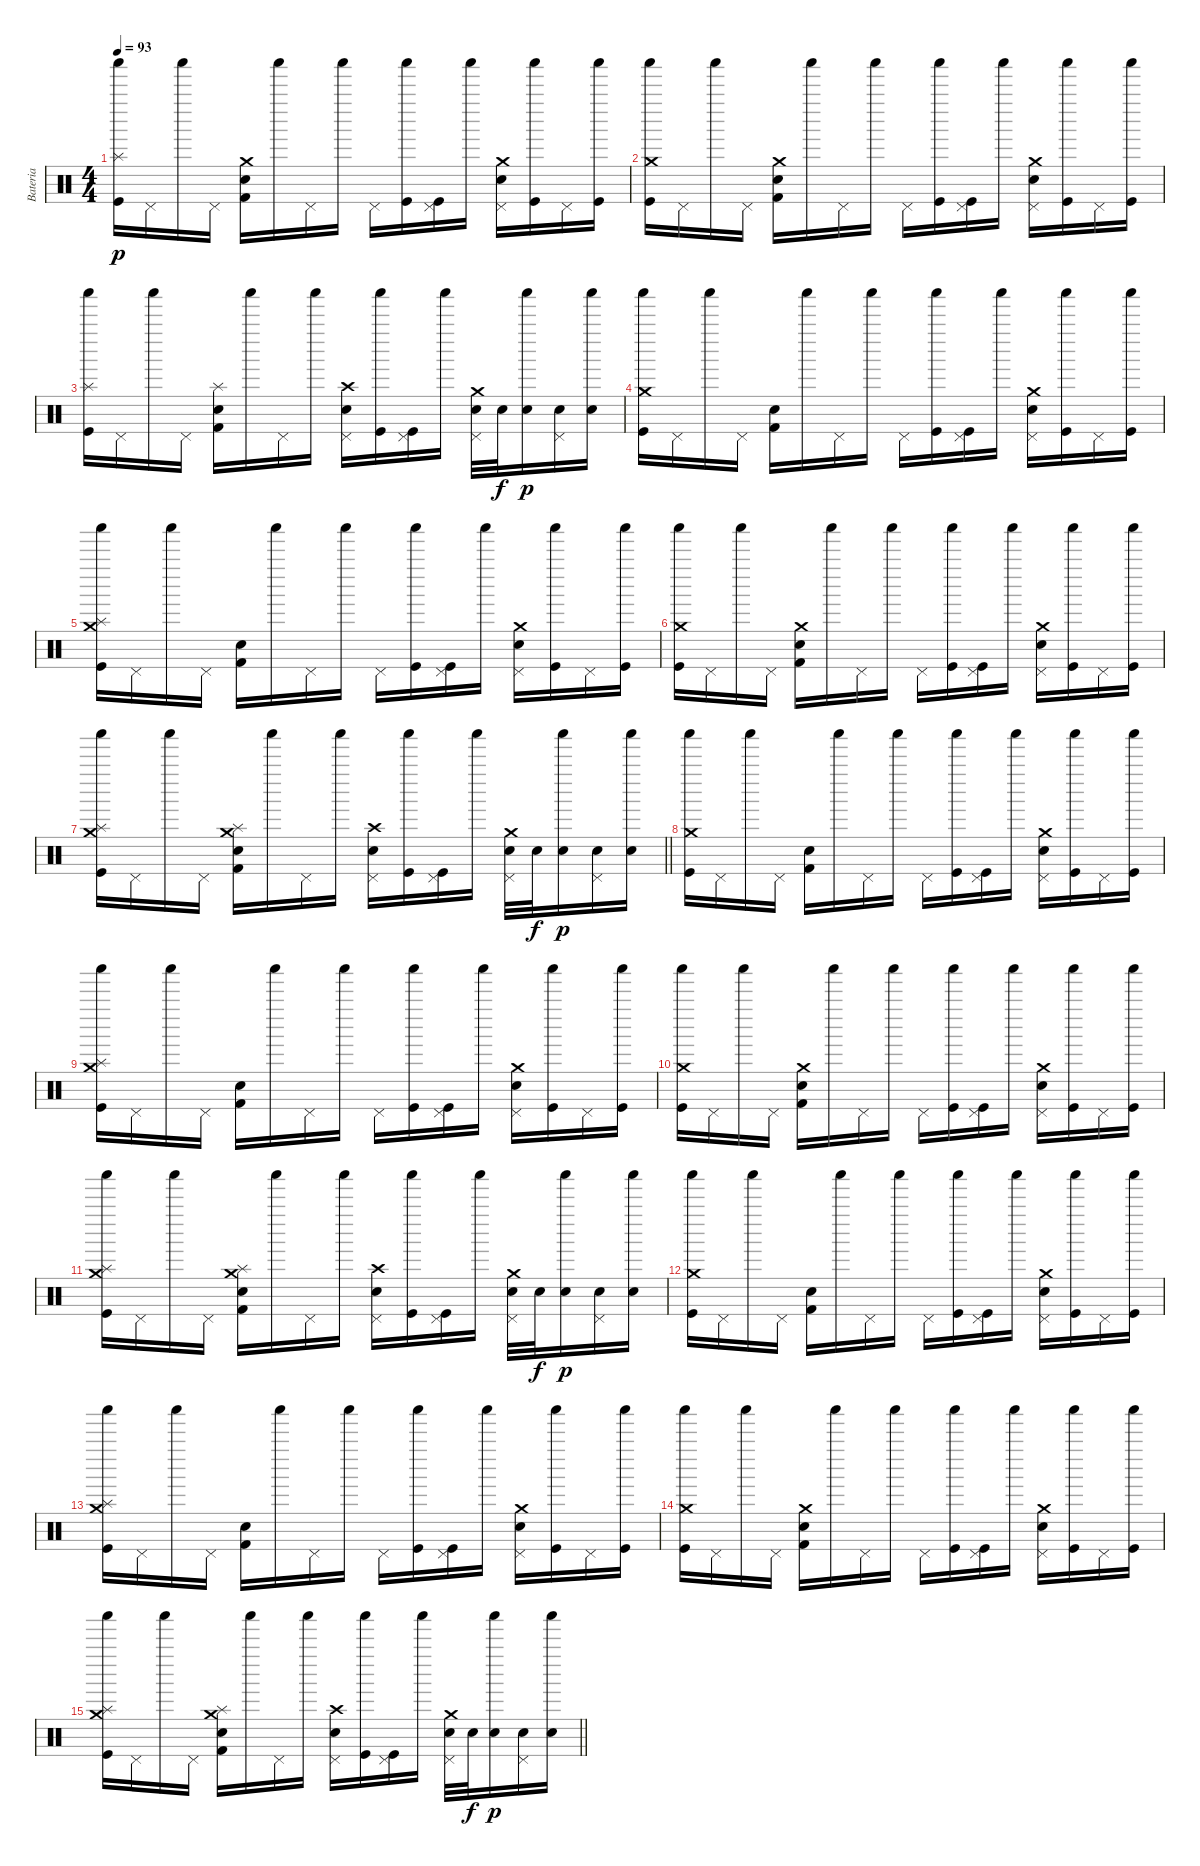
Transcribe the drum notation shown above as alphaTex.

\track ("Bateria" "Bateria") {instrument percussion}
\staff {score}
\articulation defaults
\ts (4 4)
\tempo 93
\clef neutral
\ks c
("Kick (hit)" "Shaker (hit)" "Splash (hit)").16{dy p} "Pedal Hi-Hat (hit)".16 "Shaker (hit)".16 "Pedal Hi-Hat (hit)".16 ("Electric Snare (hit)" "Kick (hit) 2" "Crash medium (hit)").16 "Shaker (hit)".16 "Pedal Hi-Hat (hit)".16 "Shaker (hit)".16 "Pedal Hi-Hat (hit)".16 ("Kick (hit)" "Shaker (hit)").16 ("Kick (hit)" "Pedal Hi-Hat (hit)").16 "Shaker (hit)".16 ("Electric Snare (hit)" "Pedal Hi-Hat (hit)" "Crash medium (hit)").16 ("Kick (hit)" "Shaker (hit)").16 "Pedal Hi-Hat (hit)".16 ("Kick (hit)" "Shaker (hit)").16 |
("Kick (hit)" "Shaker (hit)" "Crash medium (hit)").16 "Pedal Hi-Hat (hit)".16 "Shaker (hit)".16 "Pedal Hi-Hat (hit)".16 ("Electric Snare (hit)" "Kick (hit) 2" "Crash medium (hit)").16 "Shaker (hit)".16 "Pedal Hi-Hat (hit)".16 "Shaker (hit)".16 "Pedal Hi-Hat (hit)".16 ("Kick (hit)" "Shaker (hit)").16 ("Kick (hit)" "Pedal Hi-Hat (hit)").16 "Shaker (hit)".16 ("Electric Snare (hit)" "Pedal Hi-Hat (hit)" "Crash medium (hit)").16 ("Kick (hit)" "Shaker (hit)").16 "Pedal Hi-Hat (hit)".16 ("Kick (hit)" "Shaker (hit)").16 |
("Kick (hit)" "Shaker (hit)" "Splash (hit)").16 "Pedal Hi-Hat (hit)".16 "Shaker (hit)".16 "Pedal Hi-Hat (hit)".16 ("Electric Snare (hit)" "Kick (hit) 2" "Splash (hit)").16 "Shaker (hit)".16 "Pedal Hi-Hat (hit)".16 "Shaker (hit)".16 ("Electric Snare (hit)" "Pedal Hi-Hat (hit)" "Crash high (hit)").16 ("Kick (hit)" "Shaker (hit)").16 ("Kick (hit)" "Pedal Hi-Hat (hit)").16 "Shaker (hit)".16 ("Electric Snare (hit)" "Pedal Hi-Hat (hit)" "Crash medium (hit)").32 "Electric Snare (hit)".32{dy f} ("Electric Snare (hit)" "Shaker (hit)").16{dy p} ("Electric Snare (hit)" "Pedal Hi-Hat (hit)").16 ("Electric Snare (hit)" "Shaker (hit)").16 |
("Kick (hit)" "Shaker (hit)" "Crash medium (hit)").16 "Pedal Hi-Hat (hit)".16 "Shaker (hit)".16 "Pedal Hi-Hat (hit)".16 ("Electric Snare (hit)" "Kick (hit) 2").16 "Shaker (hit)".16 "Pedal Hi-Hat (hit)".16 "Shaker (hit)".16 "Pedal Hi-Hat (hit)".16 ("Kick (hit)" "Shaker (hit)").16 ("Kick (hit)" "Pedal Hi-Hat (hit)").16 "Shaker (hit)".16 ("Electric Snare (hit)" "Pedal Hi-Hat (hit)" "Crash medium (hit)").16 ("Kick (hit)" "Shaker (hit)").16 "Pedal Hi-Hat (hit)".16 ("Kick (hit)" "Shaker (hit)").16 |
("Kick (hit)" "Shaker (hit)" "Splash (hit)" "Crash medium (hit)").16 "Pedal Hi-Hat (hit)".16 "Shaker (hit)".16 "Pedal Hi-Hat (hit)".16 ("Electric Snare (hit)" "Kick (hit) 2").16 "Shaker (hit)".16 "Pedal Hi-Hat (hit)".16 "Shaker (hit)".16 "Pedal Hi-Hat (hit)".16 ("Kick (hit)" "Shaker (hit)").16 ("Kick (hit)" "Pedal Hi-Hat (hit)").16 "Shaker (hit)".16 ("Electric Snare (hit)" "Pedal Hi-Hat (hit)" "Crash medium (hit)").16 ("Kick (hit)" "Shaker (hit)").16 "Pedal Hi-Hat (hit)".16 ("Kick (hit)" "Shaker (hit)").16 |
("Kick (hit)" "Shaker (hit)" "Crash medium (hit)").16 "Pedal Hi-Hat (hit)".16 "Shaker (hit)".16 "Pedal Hi-Hat (hit)".16 ("Electric Snare (hit)" "Kick (hit) 2" "Crash medium (hit)").16 "Shaker (hit)".16 "Pedal Hi-Hat (hit)".16 "Shaker (hit)".16 "Pedal Hi-Hat (hit)".16 ("Kick (hit)" "Shaker (hit)").16 ("Kick (hit)" "Pedal Hi-Hat (hit)").16 "Shaker (hit)".16 ("Electric Snare (hit)" "Pedal Hi-Hat (hit)" "Crash medium (hit)").16 ("Kick (hit)" "Shaker (hit)").16 "Pedal Hi-Hat (hit)".16 ("Kick (hit)" "Shaker (hit)").16 |
\barLineRight lightlight
("Kick (hit)" "Shaker (hit)" "Splash (hit)" "Crash medium (hit)").16 "Pedal Hi-Hat (hit)".16 "Shaker (hit)".16 "Pedal Hi-Hat (hit)".16 ("Electric Snare (hit)" "Kick (hit) 2" "Splash (hit)" "Crash medium (hit)").16 "Shaker (hit)".16 "Pedal Hi-Hat (hit)".16 "Shaker (hit)".16 ("Electric Snare (hit)" "Pedal Hi-Hat (hit)" "Crash high (hit)").16 ("Kick (hit)" "Shaker (hit)").16 ("Kick (hit)" "Pedal Hi-Hat (hit)").16 "Shaker (hit)".16 ("Electric Snare (hit)" "Pedal Hi-Hat (hit)" "Crash medium (hit)").32 "Electric Snare (hit)".32{dy f} ("Electric Snare (hit)" "Shaker (hit)").16{dy p} ("Electric Snare (hit)" "Pedal Hi-Hat (hit)").16 ("Electric Snare (hit)" "Shaker (hit)").16 |
("Kick (hit)" "Shaker (hit)" "Crash medium (hit)").16 "Pedal Hi-Hat (hit)".16 "Shaker (hit)".16 "Pedal Hi-Hat (hit)".16 ("Electric Snare (hit)" "Kick (hit) 2").16 "Shaker (hit)".16 "Pedal Hi-Hat (hit)".16 "Shaker (hit)".16{volume 13} "Pedal Hi-Hat (hit)".16 ("Kick (hit)" "Shaker (hit)").16 ("Kick (hit)" "Pedal Hi-Hat (hit)").16 "Shaker (hit)".16 ("Electric Snare (hit)" "Pedal Hi-Hat (hit)" "Crash medium (hit)").16 ("Kick (hit)" "Shaker (hit)").16 "Pedal Hi-Hat (hit)".16 ("Kick (hit)" "Shaker (hit)").16 |
("Kick (hit)" "Shaker (hit)" "Splash (hit)" "Crash medium (hit)").16{volume 11} "Pedal Hi-Hat (hit)".16 "Shaker (hit)".16 "Pedal Hi-Hat (hit)".16 ("Electric Snare (hit)" "Kick (hit) 2").16 "Shaker (hit)".16 "Pedal Hi-Hat (hit)".16 "Shaker (hit)".16 "Pedal Hi-Hat (hit)".16 ("Kick (hit)" "Shaker (hit)").16 ("Kick (hit)" "Pedal Hi-Hat (hit)").16 "Shaker (hit)".16{volume 9} ("Electric Snare (hit)" "Pedal Hi-Hat (hit)" "Crash medium (hit)").16 ("Kick (hit)" "Shaker (hit)").16 "Pedal Hi-Hat (hit)".16 ("Kick (hit)" "Shaker (hit)").16 |
("Kick (hit)" "Shaker (hit)" "Crash medium (hit)").16{volume 8} "Pedal Hi-Hat (hit)".16 "Shaker (hit)".16 "Pedal Hi-Hat (hit)".16 ("Electric Snare (hit)" "Kick (hit) 2" "Crash medium (hit)").16 "Shaker (hit)".16 "Pedal Hi-Hat (hit)".16 "Shaker (hit)".16 "Pedal Hi-Hat (hit)".16{volume 7} ("Kick (hit)" "Shaker (hit)").16 ("Kick (hit)" "Pedal Hi-Hat (hit)").16 "Shaker (hit)".16 ("Electric Snare (hit)" "Pedal Hi-Hat (hit)" "Crash medium (hit)").16 ("Kick (hit)" "Shaker (hit)").16 "Pedal Hi-Hat (hit)".16 ("Kick (hit)" "Shaker (hit)").16 |
("Kick (hit)" "Shaker (hit)" "Splash (hit)" "Crash medium (hit)").16 "Pedal Hi-Hat (hit)".16 "Shaker (hit)".16 "Pedal Hi-Hat (hit)".16 ("Electric Snare (hit)" "Kick (hit) 2" "Splash (hit)" "Crash medium (hit)").16{volume 6} "Shaker (hit)".16 "Pedal Hi-Hat (hit)".16 "Shaker (hit)".16 ("Electric Snare (hit)" "Pedal Hi-Hat (hit)" "Crash high (hit)").16 ("Kick (hit)" "Shaker (hit)").16 ("Kick (hit)" "Pedal Hi-Hat (hit)").16 "Shaker (hit)".16 ("Electric Snare (hit)" "Pedal Hi-Hat (hit)" "Crash medium (hit)").32{volume 5} "Electric Snare (hit)".32{dy f} ("Electric Snare (hit)" "Shaker (hit)").16{dy p} ("Electric Snare (hit)" "Pedal Hi-Hat (hit)").16 ("Electric Snare (hit)" "Shaker (hit)").16 |
("Kick (hit)" "Shaker (hit)" "Crash medium (hit)").16{volume 4} "Pedal Hi-Hat (hit)".16 "Shaker (hit)".16 "Pedal Hi-Hat (hit)".16 ("Electric Snare (hit)" "Kick (hit) 2").16 "Shaker (hit)".16 "Pedal Hi-Hat (hit)".16 "Shaker (hit)".16 "Pedal Hi-Hat (hit)".16 ("Kick (hit)" "Shaker (hit)").16 ("Kick (hit)" "Pedal Hi-Hat (hit)").16 "Shaker (hit)".16 ("Electric Snare (hit)" "Pedal Hi-Hat (hit)" "Crash medium (hit)").16 ("Kick (hit)" "Shaker (hit)").16 "Pedal Hi-Hat (hit)".16 ("Kick (hit)" "Shaker (hit)").16 |
("Kick (hit)" "Shaker (hit)" "Splash (hit)" "Crash medium (hit)").16{volume 3} "Pedal Hi-Hat (hit)".16 "Shaker (hit)".16 "Pedal Hi-Hat (hit)".16 ("Electric Snare (hit)" "Kick (hit) 2").16 "Shaker (hit)".16 "Pedal Hi-Hat (hit)".16 "Shaker (hit)".16 "Pedal Hi-Hat (hit)".16 ("Kick (hit)" "Shaker (hit)").16 ("Kick (hit)" "Pedal Hi-Hat (hit)").16 "Shaker (hit)".16 ("Electric Snare (hit)" "Pedal Hi-Hat (hit)" "Crash medium (hit)").16{volume 2} ("Kick (hit)" "Shaker (hit)").16 "Pedal Hi-Hat (hit)".16 ("Kick (hit)" "Shaker (hit)").16 |
("Kick (hit)" "Shaker (hit)" "Crash medium (hit)").16{volume 1} "Pedal Hi-Hat (hit)".16 "Shaker (hit)".16 "Pedal Hi-Hat (hit)".16 ("Electric Snare (hit)" "Kick (hit) 2" "Crash medium (hit)").16 "Shaker (hit)".16 "Pedal Hi-Hat (hit)".16 "Shaker (hit)".16 "Pedal Hi-Hat (hit)".16 ("Kick (hit)" "Shaker (hit)").16 ("Kick (hit)" "Pedal Hi-Hat (hit)").16 "Shaker (hit)".16 ("Electric Snare (hit)" "Pedal Hi-Hat (hit)" "Crash medium (hit)").16 ("Kick (hit)" "Shaker (hit)").16 "Pedal Hi-Hat (hit)".16 ("Kick (hit)" "Shaker (hit)").16 |
\barLineRight lightlight
("Kick (hit)" "Shaker (hit)" "Splash (hit)" "Crash medium (hit)").16 "Pedal Hi-Hat (hit)".16 "Shaker (hit)".16 "Pedal Hi-Hat (hit)".16 ("Electric Snare (hit)" "Kick (hit) 2" "Splash (hit)" "Crash medium (hit)").16 "Shaker (hit)".16 "Pedal Hi-Hat (hit)".16 "Shaker (hit)".16 ("Electric Snare (hit)" "Pedal Hi-Hat (hit)" "Crash high (hit)").16 ("Kick (hit)" "Shaker (hit)").16 ("Kick (hit)" "Pedal Hi-Hat (hit)").16 "Shaker (hit)".16 ("Electric Snare (hit)" "Pedal Hi-Hat (hit)" "Crash medium (hit)").32 "Electric Snare (hit)".32{dy f} ("Electric Snare (hit)" "Shaker (hit)").16{dy p} ("Electric Snare (hit)" "Pedal Hi-Hat (hit)").16 ("Electric Snare (hit)" "Shaker (hit)").16
